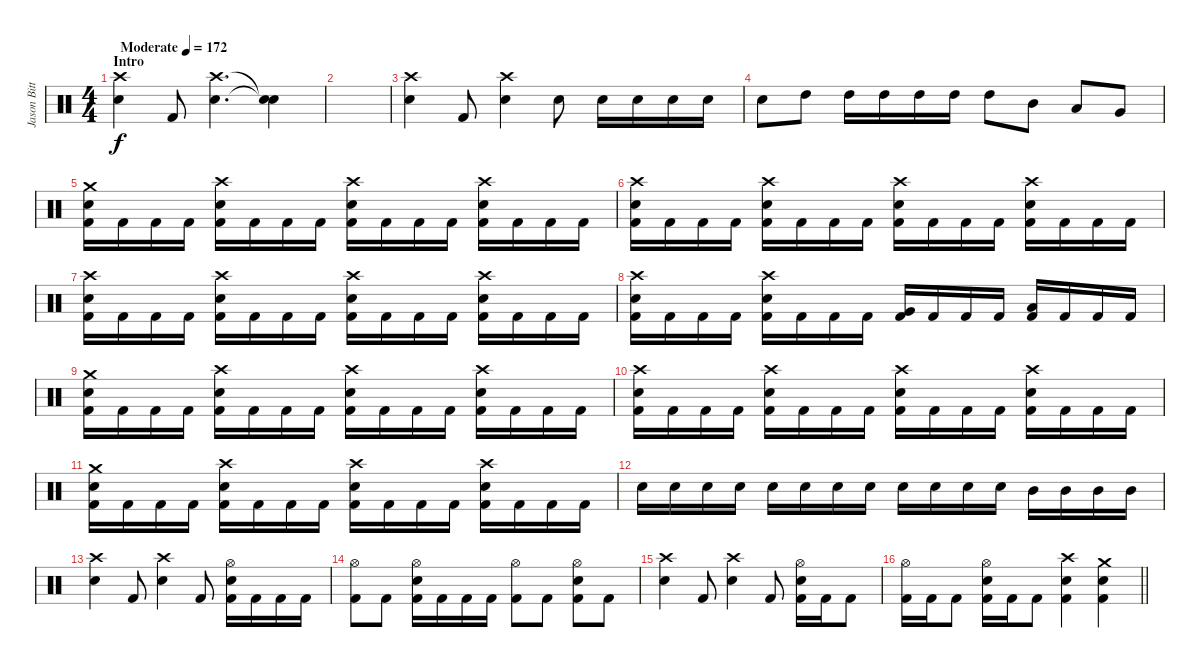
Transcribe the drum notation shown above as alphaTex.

\track ("Jason Bittner" "Jason Bitt") {instrument percussion}
\staff {score}
\articulation defaults
\ts (4 4)
\section ("" "Intro")
\tempo (172 "Moderate")
\clef neutral
\ks c
("Crash high (hit)" "Electric Snare (hit)").4{dy f} "Kick (hit) 2".8 ("Crash high (hit)" "Electric Snare (hit)").4{d} ("Snare (hit)"{t} "Snare (hit)"{t}).4 |
|
("Crash high (hit)" "Electric Snare (hit)").4 "Kick (hit) 2".8 ("Crash high (hit)" "Electric Snare (hit)").4 "Electric Snare (hit)".8 "Electric Snare (hit)".16 "Electric Snare (hit)".16 "Electric Snare (hit)".16 "Electric Snare (hit)".16 |
"Electric Snare (hit)".8 "High Tom (hit)".8 "High Tom (hit)".16 "High Tom (hit)".16 "High Tom (hit)".16 "High Tom (hit)".16 "High Tom (hit)".8 "Mid Tom (hit)".8 "Low Tom (hit)".8 "Very Low Tom (hit)".8 |
("Crash medium (hit)" "Electric Snare (hit)" "Kick (hit) 2").16 "Kick (hit) 2".16 "Kick (hit) 2".16 "Kick (hit) 2".16 ("Crash high (hit)" "Electric Snare (hit)" "Kick (hit) 2").16 "Kick (hit) 2".16 "Kick (hit) 2".16 "Kick (hit) 2".16 ("Crash high (hit)" "Electric Snare (hit)" "Kick (hit) 2").16 "Kick (hit) 2".16 "Kick (hit) 2".16 "Kick (hit) 2".16 ("Crash high (hit)" "Electric Snare (hit)" "Kick (hit) 2").16 "Kick (hit) 2".16 "Kick (hit) 2".16 "Kick (hit) 2".16 |
("Crash high (hit)" "Electric Snare (hit)" "Kick (hit) 2").16 "Kick (hit) 2".16 "Kick (hit) 2".16 "Kick (hit) 2".16 ("Crash high (hit)" "Electric Snare (hit)" "Kick (hit) 2").16 "Kick (hit) 2".16 "Kick (hit) 2".16 "Kick (hit) 2".16 ("Crash high (hit)" "Electric Snare (hit)" "Kick (hit) 2").16 "Kick (hit) 2".16 "Kick (hit) 2".16 "Kick (hit) 2".16 ("Crash high (hit)" "Electric Snare (hit)" "Kick (hit) 2").16 "Kick (hit) 2".16 "Kick (hit) 2".16 "Kick (hit) 2".16 |
("Crash high (hit)" "Electric Snare (hit)" "Kick (hit) 2").16 "Kick (hit) 2".16 "Kick (hit) 2".16 "Kick (hit) 2".16 ("Crash high (hit)" "Electric Snare (hit)" "Kick (hit) 2").16 "Kick (hit) 2".16 "Kick (hit) 2".16 "Kick (hit) 2".16 ("Crash high (hit)" "Electric Snare (hit)" "Kick (hit) 2").16 "Kick (hit) 2".16 "Kick (hit) 2".16 "Kick (hit) 2".16 ("Crash high (hit)" "Electric Snare (hit)" "Kick (hit) 2").16 "Kick (hit) 2".16 "Kick (hit) 2".16 "Kick (hit) 2".16 |
("Crash high (hit)" "Electric Snare (hit)" "Kick (hit) 2").16 "Kick (hit) 2".16 "Kick (hit) 2".16 "Kick (hit) 2".16 ("Crash high (hit)" "Electric Snare (hit)" "Kick (hit) 2").16 "Kick (hit) 2".16 "Kick (hit) 2".16 "Kick (hit) 2".16 ("Very Low Tom (hit)" "Kick (hit) 2").16 "Kick (hit) 2".16 "Kick (hit) 2".16 "Kick (hit) 2".16 ("Low Floor Tom (hit)" "Kick (hit) 2").16 "Kick (hit) 2".16 "Kick (hit) 2".16 "Kick (hit) 2".16 |
("Crash medium (hit)" "Electric Snare (hit)" "Kick (hit) 2").16 "Kick (hit) 2".16 "Kick (hit) 2".16 "Kick (hit) 2".16 ("Crash high (hit)" "Electric Snare (hit)" "Kick (hit) 2").16 "Kick (hit) 2".16 "Kick (hit) 2".16 "Kick (hit) 2".16 ("Crash high (hit)" "Electric Snare (hit)" "Kick (hit) 2").16 "Kick (hit) 2".16 "Kick (hit) 2".16 "Kick (hit) 2".16 ("Crash high (hit)" "Electric Snare (hit)" "Kick (hit) 2").16 "Kick (hit) 2".16 "Kick (hit) 2".16 "Kick (hit) 2".16 |
("Crash high (hit)" "Electric Snare (hit)" "Kick (hit) 2").16 "Kick (hit) 2".16 "Kick (hit) 2".16 "Kick (hit) 2".16 ("Crash high (hit)" "Electric Snare (hit)" "Kick (hit) 2").16 "Kick (hit) 2".16 "Kick (hit) 2".16 "Kick (hit) 2".16 ("Crash high (hit)" "Electric Snare (hit)" "Kick (hit) 2").16 "Kick (hit) 2".16 "Kick (hit) 2".16 "Kick (hit) 2".16 ("Crash high (hit)" "Electric Snare (hit)" "Kick (hit) 2").16 "Kick (hit) 2".16 "Kick (hit) 2".16 "Kick (hit) 2".16 |
("Crash medium (hit)" "Electric Snare (hit)" "Kick (hit) 2").16 "Kick (hit) 2".16 "Kick (hit) 2".16 "Kick (hit) 2".16 ("Crash high (hit)" "Electric Snare (hit)" "Kick (hit) 2").16 "Kick (hit) 2".16 "Kick (hit) 2".16 "Kick (hit) 2".16 ("Crash high (hit)" "Electric Snare (hit)" "Kick (hit) 2").16 "Kick (hit) 2".16 "Kick (hit) 2".16 "Kick (hit) 2".16 ("Crash high (hit)" "Electric Snare (hit)" "Kick (hit) 2").16 "Kick (hit) 2".16 "Kick (hit) 2".16 "Kick (hit) 2".16 |
"Electric Snare (hit)".16 "Electric Snare (hit)".16 "Electric Snare (hit)".16 "Electric Snare (hit)".16 "Electric Snare (hit)".16 "Electric Snare (hit)".16 "Electric Snare (hit)".16 "Electric Snare (hit)".16 "Electric Snare (hit)".16 "Electric Snare (hit)".16 "Electric Snare (hit)".16 "Electric Snare (hit)".16 "Mid Tom (hit)".16 "Mid Tom (hit)".16 "Mid Tom (hit)".16 "Mid Tom (hit)".16 |
("Crash high (hit)" "Electric Snare (hit)").4 "Kick (hit) 2".8 ("Crash high (hit)" "Electric Snare (hit)").4 "Kick (hit) 2".8 ("Hi-Hat (open)" "Electric Snare (hit)" "Kick (hit) 2").16 "Kick (hit) 2".16 "Kick (hit) 2".16 "Kick (hit) 2".16 |
("Hi-Hat (open)" "Kick (hit) 2").8 "Kick (hit) 2".8 ("Hi-Hat (open)" "Electric Snare (hit)" "Kick (hit) 2").16 "Kick (hit) 2".16 "Kick (hit) 2".16 "Kick (hit) 2".16 ("Hi-Hat (open)" "Kick (hit) 2").8 "Kick (hit) 2".8 ("Hi-Hat (open)" "Electric Snare (hit)" "Kick (hit) 2").8 "Kick (hit) 2".8 |
("Crash high (hit)" "Electric Snare (hit)").4 "Kick (hit) 2".8 ("Crash high (hit)" "Electric Snare (hit)").4 "Kick (hit) 2".8 ("Hi-Hat (open)" "Electric Snare (hit)" "Kick (hit) 2").16 "Kick (hit) 2".16 "Kick (hit) 2".8 |
\barLineRight lightlight
("Hi-Hat (open)" "Kick (hit) 2").16 "Kick (hit) 2".16 "Kick (hit) 2".8 ("Hi-Hat (open)" "Electric Snare (hit)" "Kick (hit) 2").16 "Kick (hit) 2".16 "Kick (hit) 2".8 ("Crash high (hit)" "Electric Snare (hit)" "Kick (hit) 2").4 ("Crash medium (hit)" "Electric Snare (hit)" "Kick (hit) 2").4
